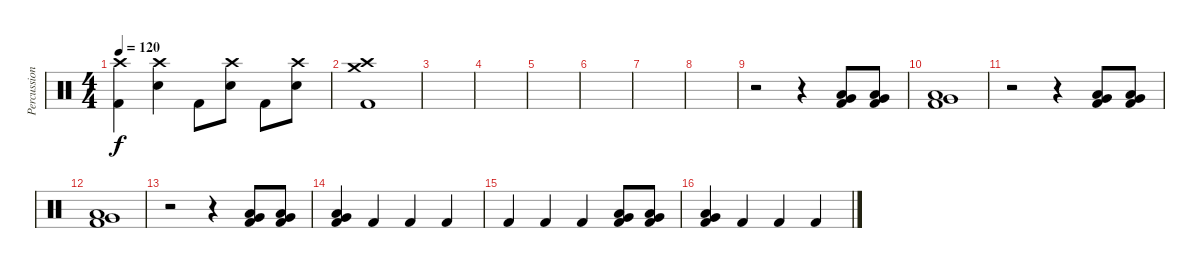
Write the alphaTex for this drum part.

\track ("Percussion" "Percussion") {instrument percussion}
\staff {score}
\articulation defaults
\ts (4 4)
\tempo 120
\clef neutral
\ks c
("Kick (hit) 2" "Crash high (hit)").4{dy f} ("Snare (hit) 2" "Crash high (hit)").4 "Kick (hit) 2".8 ("Snare (hit) 2" "Crash high (hit)").8 "Kick (hit) 2".8 ("Snare (hit) 2" "Crash high (hit)").8 |
("Kick (hit) 2" "Crash high (hit)" "Crash medium (hit)").1 |
|
|
|
|
|
|
r.2 r.4 ("Kick (hit) 2" "Low Floor Tom (hit)" "Very Low Tom (hit)").8 ("Kick (hit) 2" "Low Floor Tom (hit)" "Very Low Tom (hit)").8 |
("Kick (hit) 2" "Low Floor Tom (hit)" "Very Low Tom (hit)").1 |
r.2 r.4 ("Kick (hit) 2" "Low Floor Tom (hit)" "Very Low Tom (hit)").8 ("Kick (hit) 2" "Low Floor Tom (hit)" "Very Low Tom (hit)").8 |
("Kick (hit) 2" "Low Floor Tom (hit)" "Very Low Tom (hit)").1 |
r.2 r.4 ("Kick (hit) 2" "Low Floor Tom (hit)" "Very Low Tom (hit)").8 ("Kick (hit) 2" "Low Floor Tom (hit)" "Very Low Tom (hit)").8 |
("Kick (hit) 2" "Low Floor Tom (hit)" "Very Low Tom (hit)").4 "Kick (hit) 2".4 "Kick (hit) 2".4 "Kick (hit) 2".4 |
"Kick (hit) 2".4 "Kick (hit) 2".4 "Kick (hit) 2".4 ("Kick (hit) 2" "Low Floor Tom (hit)" "Very Low Tom (hit)").8 ("Kick (hit) 2" "Low Floor Tom (hit)" "Very Low Tom (hit)").8 |
("Kick (hit) 2" "Low Floor Tom (hit)" "Very Low Tom (hit)").4 "Kick (hit) 2".4 "Kick (hit) 2".4 "Kick (hit) 2".4
